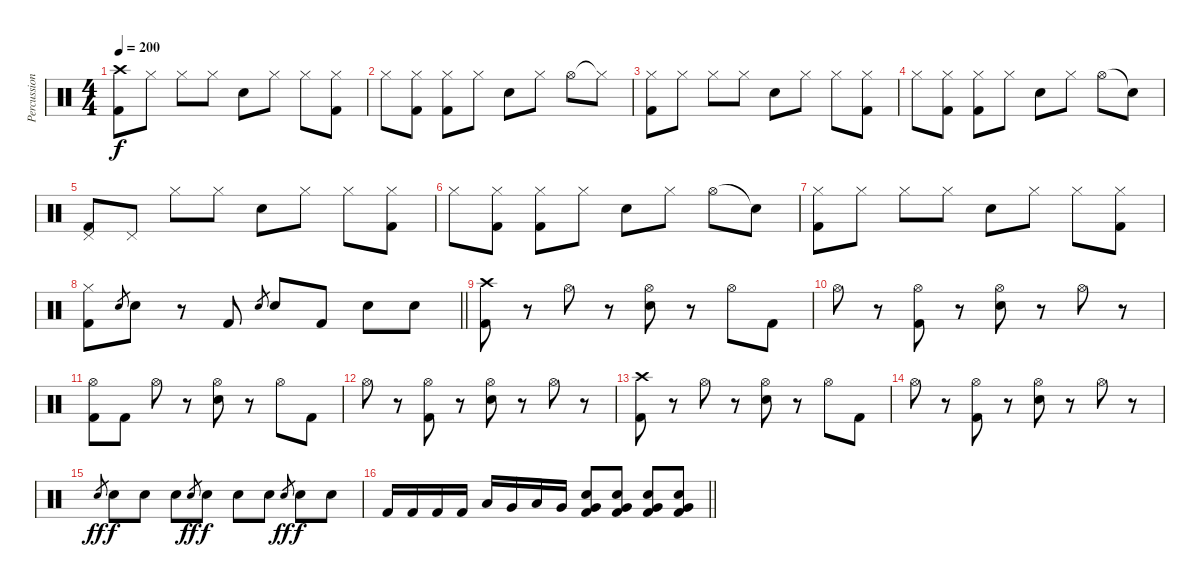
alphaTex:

\track ("Percussion" "Percussion") {instrument percussion}
\staff {score}
\articulation defaults
\ts (4 4)
\section ("" "")
\tempo 200
\clef neutral
\ks c
("Crash high (hit)" "Kick (hit) 2").8{dy f} "Hi-Hat (closed)".8 "Hi-Hat (closed)".8 "Hi-Hat (closed)".8 "Electric Snare (hit)".8 "Hi-Hat (closed)".8 "Hi-Hat (closed)".8 ("Hi-Hat (closed)" "Kick (hit) 2").8 |
"Hi-Hat (closed)".8 ("Hi-Hat (closed)" "Kick (hit) 2").8 ("Hi-Hat (closed)" "Kick (hit) 2").8 "Hi-Hat (closed)".8 "Electric Snare (hit)".8 "Hi-Hat (closed)".8 "Hi-Hat (open)".8 "Hi-Hat (closed)"{t}.8 |
("Hi-Hat (closed)" "Kick (hit) 2").8 "Hi-Hat (closed)".8 "Hi-Hat (closed)".8 "Hi-Hat (closed)".8 "Electric Snare (hit)".8 "Hi-Hat (closed)".8 "Hi-Hat (closed)".8 ("Hi-Hat (closed)" "Kick (hit) 2").8 |
"Hi-Hat (closed)".8 ("Hi-Hat (closed)" "Kick (hit) 2").8 ("Hi-Hat (closed)" "Kick (hit) 2").8 "Hi-Hat (closed)".8 "Electric Snare (hit)".8 "Hi-Hat (closed)".8 "Hi-Hat (open)".8 "Snare (hit)"{t}.8 |
("Pedal Hi-Hat (hit)" "Kick (hit) 2").8 "Pedal Hi-Hat (hit)".8 "Hi-Hat (closed)".8 "Hi-Hat (closed)".8 "Electric Snare (hit)".8 "Hi-Hat (closed)".8 "Hi-Hat (closed)".8 ("Hi-Hat (closed)" "Kick (hit) 2").8 |
"Hi-Hat (closed)".8 ("Hi-Hat (closed)" "Kick (hit) 2").8 ("Hi-Hat (closed)" "Kick (hit) 2").8 "Hi-Hat (closed)".8 "Electric Snare (hit)".8 "Hi-Hat (closed)".8 "Hi-Hat (open)".8 "Snare (hit)"{t}.8 |
("Hi-Hat (closed)" "Kick (hit) 2").8 "Hi-Hat (closed)".8 "Hi-Hat (closed)".8 "Hi-Hat (closed)".8 "Electric Snare (hit)".8 "Hi-Hat (closed)".8 "Hi-Hat (closed)".8 ("Hi-Hat (closed)" "Kick (hit) 2").8 |
\barLineRight lightlight
("Hi-Hat (closed)" "Kick (hit) 2").8 "Electric Snare (hit)".8{gr} "Electric Snare (hit)".8 r.8 "Kick (hit) 2".8 "Electric Snare (hit)".8{gr} "Electric Snare (hit)".8 "Kick (hit) 2".8 "Electric Snare (hit)".8 "Electric Snare (hit)".8 |
\section ("" "")
("Crash high (hit)" "Kick (hit) 2").8 r.8 "Hi-Hat (open)".8 r.8 ("Hi-Hat (open)" "Electric Snare (hit)").8 r.8 "Hi-Hat (open)".8 "Kick (hit) 2".8 |
"Hi-Hat (open)".8 r.8 ("Hi-Hat (open)" "Kick (hit) 2").8 r.8 ("Hi-Hat (open)" "Electric Snare (hit)").8 r.8 "Hi-Hat (open)".8 r.8 |
("Hi-Hat (open)" "Kick (hit) 2").8 "Kick (hit) 2".8 "Hi-Hat (open)".8 r.8 ("Hi-Hat (open)" "Electric Snare (hit)").8 r.8 "Hi-Hat (open)".8 "Kick (hit) 2".8 |
"Hi-Hat (open)".8 r.8 ("Hi-Hat (open)" "Kick (hit) 2").8 r.8 ("Hi-Hat (open)" "Electric Snare (hit)").8 r.8 "Hi-Hat (open)".8 r.8 |
("Crash high (hit)" "Kick (hit) 2").8 r.8 "Hi-Hat (open)".8 r.8 ("Hi-Hat (open)" "Electric Snare (hit)").8 r.8 "Hi-Hat (open)".8 "Kick (hit) 2".8 |
"Hi-Hat (open)".8 r.8 ("Hi-Hat (open)" "Kick (hit) 2").8 r.8 ("Hi-Hat (open)" "Electric Snare (hit)").8 r.8 "Hi-Hat (open)".8 r.8 |
"Electric Snare (hit)".8{gr dy ff} "Electric Snare (hit)".8{dy f} "Electric Snare (hit)".8 "Electric Snare (hit)".8 "Electric Snare (hit)".8{gr dy ff} "Electric Snare (hit)".8{dy f} "Electric Snare (hit)".8 "Electric Snare (hit)".8 "Electric Snare (hit)".8{gr dy ff} "Electric Snare (hit)".8{dy f} "Electric Snare (hit)".8 |
\barLineRight lightlight "Kick (hit) 2".16 "Kick (hit) 2".16 "Kick (hit) 2".16 "Kick (hit) 2".16 "Low Tom (hit)".16 "Very Low Tom (hit)".16 "Low Floor Tom (hit)".16 "Very Low Tom (hit)".16
("Very Low Tom (hit)" "Electric Snare (hit)" "Kick (hit) 2").8 ("Very Low Tom (hit)" "Electric Snare (hit)" "Kick (hit) 2").8 ("Very Low Tom (hit)" "Electric Snare (hit)" "Kick (hit) 2").8 ("Very Low Tom (hit)" "Electric Snare (hit)" "Kick (hit) 2").8
